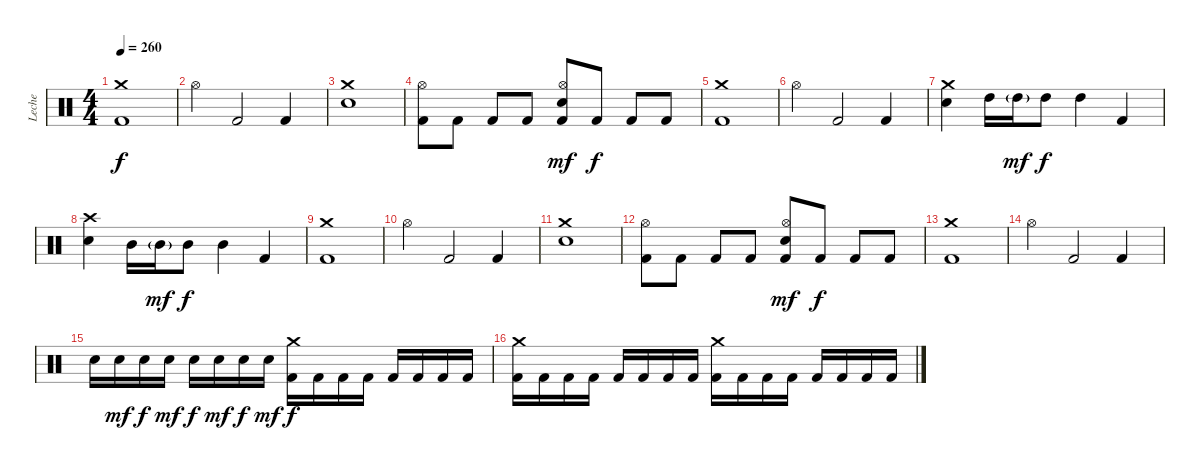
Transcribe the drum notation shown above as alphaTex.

\track ("Leche" "Leche") {instrument percussion}
\staff {score}
\articulation defaults
\ts (4 4)
\tempo 260
\clef neutral
\ks c
("Crash medium (hit)" "Kick (hit) 2").1{dy f} |
"Hi-Hat (open)".4 "Kick (hit) 2".2 "Kick (hit) 2".4 |
("Crash medium (hit)" "Electric Snare (hit)").1 |
("Hi-Hat (open)" "Kick (hit) 2").8 "Kick (hit) 2".8 "Kick (hit) 2".8 "Kick (hit) 2".8 ("Hi-Hat (open)" "Electric Snare (hit)" "Kick (hit) 2").8{dy mf} "Kick (hit) 2".8{dy f} "Kick (hit) 2".8 "Kick (hit) 2".8 |
("Crash medium (hit)" "Kick (hit) 2").1 |
"Hi-Hat (open)".4 "Kick (hit) 2".2 "Kick (hit) 2".4 |
("Crash medium (hit)" "Electric Snare (hit)").4 "High Tom (hit)".16 "High Tom (hit)"{g}.16{dy mf} "High Tom (hit)".8{dy f} "High Tom (hit)".4 "Kick (hit) 2".4 |
("Crash high (hit)" "Electric Snare (hit)").4 "Mid Tom (hit)".16 "Mid Tom (hit)"{g}.16{dy mf} "Mid Tom (hit)".8{dy f} "Mid Tom (hit)".4 "Kick (hit) 2".4 |
("Crash medium (hit)" "Kick (hit) 2").1 |
"Hi-Hat (open)".4 "Kick (hit) 2".2 "Kick (hit) 2".4 |
("Crash medium (hit)" "Electric Snare (hit)").1 |
("Hi-Hat (open)" "Kick (hit) 2").8 "Kick (hit) 2".8 "Kick (hit) 2".8 "Kick (hit) 2".8 ("Hi-Hat (open)" "Electric Snare (hit)" "Kick (hit) 2").8{dy mf} "Kick (hit) 2".8{dy f} "Kick (hit) 2".8 "Kick (hit) 2".8 |
("Crash medium (hit)" "Kick (hit) 2").1 |
"Hi-Hat (open)".4 "Kick (hit) 2".2 "Kick (hit) 2".4 |
"Electric Snare (hit)".16 "Electric Snare (hit)".16{dy mf} "Electric Snare (hit)".16{dy f} "Electric Snare (hit)".16{dy mf} "Electric Snare (hit)".16{dy f} "Electric Snare (hit)".16{dy mf} "Electric Snare (hit)".16{dy f} "Electric Snare (hit)".16{dy mf} ("Crash medium (hit)" "Kick (hit) 2").16{dy f} "Kick (hit) 2".16 "Kick (hit) 2".16 "Kick (hit) 2".16 "Kick (hit) 2".16 "Kick (hit) 2".16 "Kick (hit) 2".16 "Kick (hit) 2".16 |
("Crash medium (hit)" "Kick (hit) 2").16 "Kick (hit) 2".16 "Kick (hit) 2".16 "Kick (hit) 2".16 "Kick (hit) 2".16 "Kick (hit) 2".16 "Kick (hit) 2".16 "Kick (hit) 2".16 ("Crash medium (hit)" "Kick (hit) 2").16 "Kick (hit) 2".16 "Kick (hit) 2".16 "Kick (hit) 2".16 "Kick (hit) 2".16 "Kick (hit) 2".16 "Kick (hit) 2".16 "Kick (hit) 2".16
